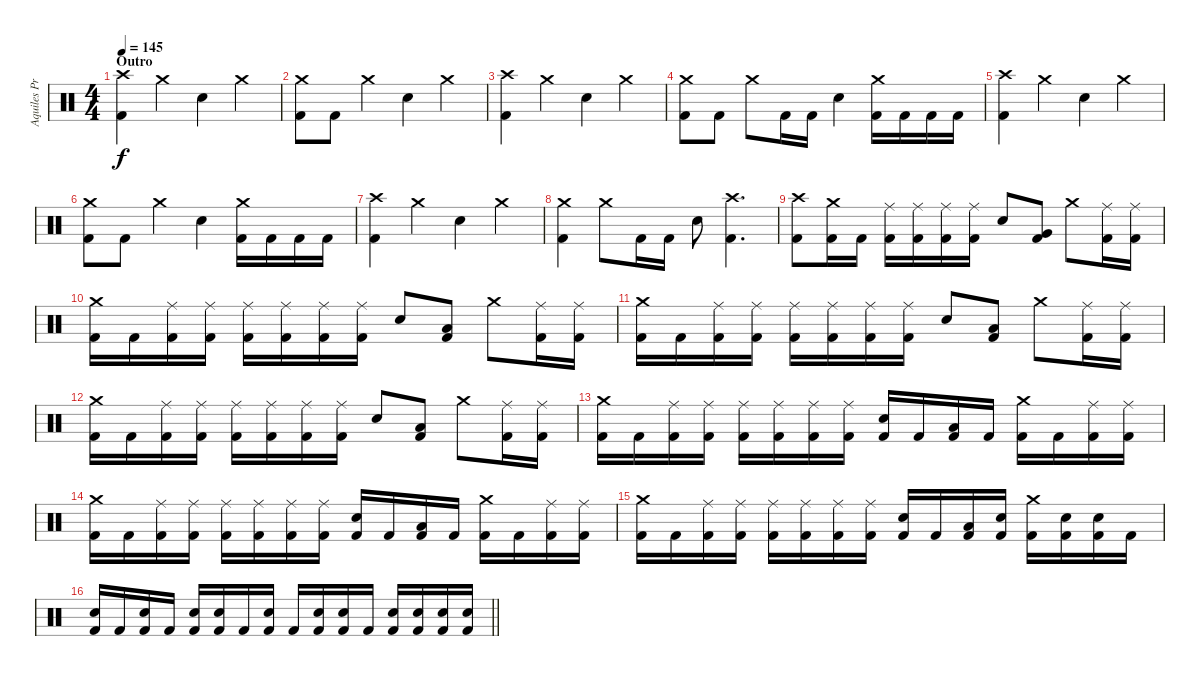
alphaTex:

\track ("Aquiles Priester" "Aquiles Pr") {instrument percussion}
\staff {score}
\articulation defaults
\ts (4 4)
\section ("" "Outro")
\tempo 145
\clef neutral
\ks c
("Crash high (hit)" "Kick (hit) 2").4{dy f} "Crash medium (hit)".4 "Electric Snare (hit)".4 "Crash medium (hit)".4 |
("Crash medium (hit)" "Kick (hit) 2").8 "Kick (hit) 2".8 "Crash medium (hit)".4 "Electric Snare (hit)".4 "Crash medium (hit)".4 |
("Crash high (hit)" "Kick (hit) 2").4 "Crash medium (hit)".4 "Electric Snare (hit)".4 "Crash medium (hit)".4 |
("Crash medium (hit)" "Kick (hit) 2").8 "Kick (hit) 2".8 "Crash medium (hit)".8 "Kick (hit) 2".16 "Kick (hit) 2".16 "Electric Snare (hit)".4 ("Crash medium (hit)" "Kick (hit) 2").16 "Kick (hit) 2".16 "Kick (hit) 2".16 "Kick (hit) 2".16 |
("Crash high (hit)" "Kick (hit) 2").4 "Crash medium (hit)".4 "Electric Snare (hit)".4 "Crash medium (hit)".4 |
("Crash medium (hit)" "Kick (hit) 2").8 "Kick (hit) 2".8 "Crash medium (hit)".4 "Electric Snare (hit)".4 ("Crash medium (hit)" "Kick (hit) 2").16 "Kick (hit) 2".16 "Kick (hit) 2".16 "Kick (hit) 2".16 |
("Crash high (hit)" "Kick (hit) 2").4 "Crash medium (hit)".4 "Electric Snare (hit)".4 "Crash medium (hit)".4 |
("Crash medium (hit)" "Kick (hit) 2").4 "Crash medium (hit)".8 "Kick (hit) 2".16 "Kick (hit) 2".16 "Electric Snare (hit)".8 ("Crash high (hit)" "Kick (hit) 2").4{d} |
("Crash high (hit)" "Kick (hit) 2").8 ("Crash medium (hit)" "Kick (hit) 2").16 "Kick (hit) 2".16 ("Ride (middle)" "Kick (hit) 2").16 ("Ride (middle)" "Kick (hit) 2").16 ("Ride (middle)" "Kick (hit) 2").16 ("Ride (middle)" "Kick (hit) 2").16 "Electric Snare (hit)".8 ("Very Low Tom (hit)" "Kick (hit) 2").8 "Crash medium (hit)".8 ("Ride (middle)" "Kick (hit) 2").16 ("Ride (middle)" "Kick (hit) 2").16 |
("Crash medium (hit)" "Kick (hit) 2").16 "Kick (hit) 2".16 ("Ride (middle)" "Kick (hit) 2").16 ("Ride (middle)" "Kick (hit) 2").16 ("Ride (middle)" "Kick (hit) 2").16 ("Ride (middle)" "Kick (hit) 2").16 ("Ride (middle)" "Kick (hit) 2").16 ("Ride (middle)" "Kick (hit) 2").16 "Electric Snare (hit)".8 ("Low Tom (hit)" "Kick (hit) 2").8 "Crash medium (hit)".8 ("Ride (middle)" "Kick (hit) 2").16 ("Ride (middle)" "Kick (hit) 2").16 |
("Crash medium (hit)" "Kick (hit) 2").16 "Kick (hit) 2".16 ("Ride (middle)" "Kick (hit) 2").16 ("Ride (middle)" "Kick (hit) 2").16 ("Ride (middle)" "Kick (hit) 2").16 ("Ride (middle)" "Kick (hit) 2").16 ("Ride (middle)" "Kick (hit) 2").16 ("Ride (middle)" "Kick (hit) 2").16 "Electric Snare (hit)".8 ("Low Tom (hit)" "Kick (hit) 2").8 "Crash medium (hit)".8 ("Ride (middle)" "Kick (hit) 2").16 ("Ride (middle)" "Kick (hit) 2").16 |
("Crash medium (hit)" "Kick (hit) 2").16 "Kick (hit) 2".16 ("Ride (middle)" "Kick (hit) 2").16 ("Ride (middle)" "Kick (hit) 2").16 ("Ride (middle)" "Kick (hit) 2").16 ("Ride (middle)" "Kick (hit) 2").16 ("Ride (middle)" "Kick (hit) 2").16 ("Ride (middle)" "Kick (hit) 2").16 "Electric Snare (hit)".8 ("Low Tom (hit)" "Kick (hit) 2").8 "Crash medium (hit)".8 ("Ride (middle)" "Kick (hit) 2").16 ("Ride (middle)" "Kick (hit) 2").16 |
("Crash medium (hit)" "Kick (hit) 2").16 "Kick (hit) 2".16 ("Ride (middle)" "Kick (hit) 2").16 ("Ride (middle)" "Kick (hit) 2").16 ("Ride (middle)" "Kick (hit) 2").16 ("Ride (middle)" "Kick (hit) 2").16 ("Ride (middle)" "Kick (hit) 2").16 ("Ride (middle)" "Kick (hit) 2").16 ("Electric Snare (hit)" "Kick (hit) 2").16 "Kick (hit) 2".16 ("Low Tom (hit)" "Kick (hit) 2").16 "Kick (hit) 2".16 ("Crash medium (hit)" "Kick (hit) 2").16 "Kick (hit) 2".16 ("Ride (middle)" "Kick (hit) 2").16 ("Ride (middle)" "Kick (hit) 2").16 |
("Crash medium (hit)" "Kick (hit) 2").16 "Kick (hit) 2".16 ("Ride (middle)" "Kick (hit) 2").16 ("Ride (middle)" "Kick (hit) 2").16 ("Ride (middle)" "Kick (hit) 2").16 ("Ride (middle)" "Kick (hit) 2").16 ("Ride (middle)" "Kick (hit) 2").16 ("Ride (middle)" "Kick (hit) 2").16 ("Electric Snare (hit)" "Kick (hit) 2").16 "Kick (hit) 2".16 ("Low Tom (hit)" "Kick (hit) 2").16 "Kick (hit) 2".16 ("Crash medium (hit)" "Kick (hit) 2").16 "Kick (hit) 2".16 ("Ride (middle)" "Kick (hit) 2").16 ("Ride (middle)" "Kick (hit) 2").16 |
("Crash medium (hit)" "Kick (hit) 2").16 "Kick (hit) 2".16 ("Ride (middle)" "Kick (hit) 2").16 ("Ride (middle)" "Kick (hit) 2").16 ("Ride (middle)" "Kick (hit) 2").16 ("Ride (middle)" "Kick (hit) 2").16 ("Ride (middle)" "Kick (hit) 2").16 ("Ride (middle)" "Kick (hit) 2").16 ("Electric Snare (hit)" "Kick (hit) 2").16 "Kick (hit) 2".16 ("Low Tom (hit)" "Kick (hit) 2").16 ("Electric Snare (hit)" "Kick (hit) 2").16 ("Crash medium (hit)" "Kick (hit) 2").16 ("Electric Snare (hit)" "Kick (hit) 2").16 ("Electric Snare (hit)" "Kick (hit) 2").16 "Kick (hit) 2".16 |
\barLineRight lightlight
("Electric Snare (hit)" "Kick (hit) 2").16 "Kick (hit) 2".16 ("Electric Snare (hit)" "Kick (hit) 2").16 "Kick (hit) 2".16 ("Electric Snare (hit)" "Kick (hit) 2").16 ("Electric Snare (hit)" "Kick (hit) 2").16 "Kick (hit) 2".16 ("Electric Snare (hit)" "Kick (hit) 2").16 "Kick (hit) 2".16 ("Electric Snare (hit)" "Kick (hit) 2").16 ("Electric Snare (hit)" "Kick (hit) 2").16 "Kick (hit) 2".16 ("Electric Snare (hit)" "Kick (hit) 2").16 ("Electric Snare (hit)" "Kick (hit) 2").16 ("Electric Snare (hit)" "Kick (hit) 2").16 ("Electric Snare (hit)" "Kick (hit) 2").16
